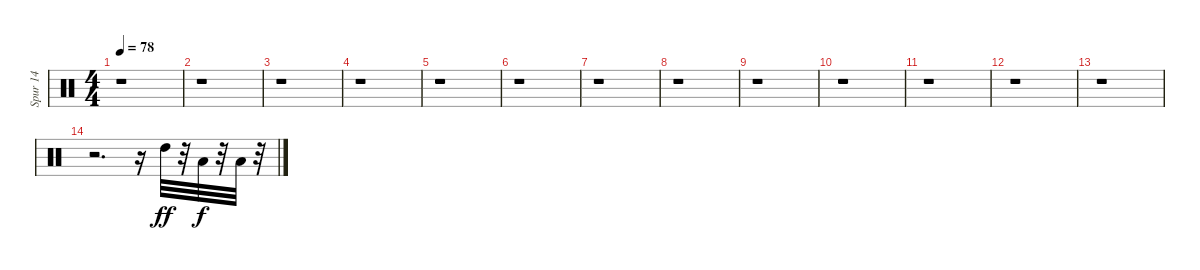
\track ("Spur 14" "Spur 14") {instrument percussion}
\staff {score}
\articulation defaults
\ts (4 4)
\tempo 78
\clef neutral
\ks c
r.1{dy ff} |
r.1 |
r.1 |
r.1 |
r.1 |
r.1 |
r.1 |
r.1 |
r.1 |
r.1 |
r.1 |
r.1 |
r.1 |
r.2{d} r.16 "High Tom (hit)".32 r.32 "Low Tom (hit)".32{dy f} r.32 "Low Floor Tom (hit)".32 r.32
